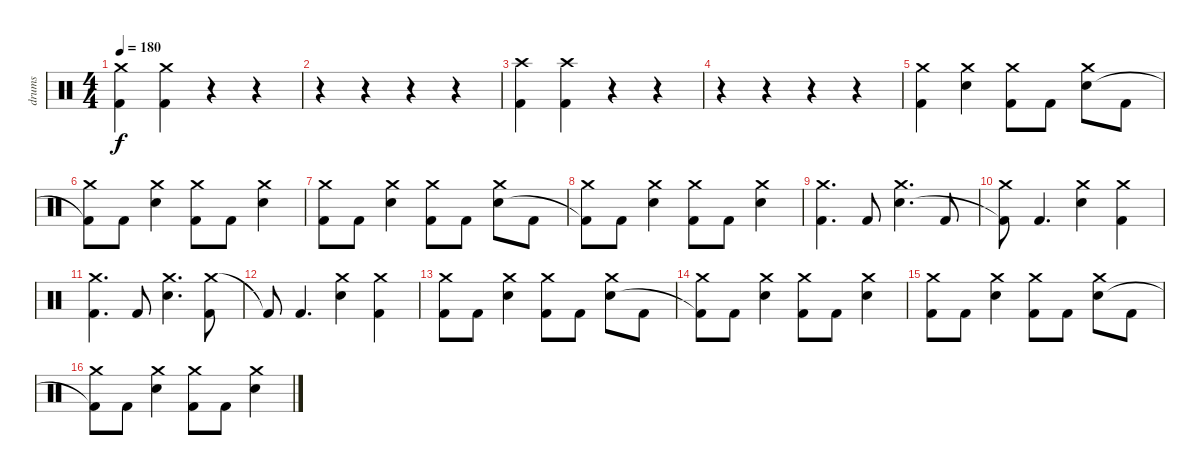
\track ("drums" "drums") {instrument percussion}
\staff {score}
\articulation defaults
\ts (4 4)
\tempo 180
\clef neutral
\ks c
("Crash medium (hit)" "Kick (hit) 2").4{dy f} ("Crash medium (hit)" "Kick (hit) 2").4 r.4 r.4 |
r.4 r.4 r.4 r.4 |
("Crash high (hit)" "Kick (hit) 2").4 ("Crash high (hit)" "Kick (hit) 2").4 r.4 r.4 |
r.4 r.4 r.4 r.4 |
("Crash medium (hit)" "Kick (hit) 2").4 ("Crash medium (hit)" "Electric Snare (hit)").4 ("Crash medium (hit)" "Kick (hit) 2").8 "Kick (hit) 2".8 ("Crash medium (hit)" "Electric Snare (hit)").8 "Kick (hit) 2".8 |
("Crash medium (hit)" "Kick (hit) 2"{t}).8 "Kick (hit) 2".8 ("Crash medium (hit)" "Electric Snare (hit)").4 ("Crash medium (hit)" "Kick (hit) 2").8 "Kick (hit) 2".8 ("Crash medium (hit)" "Electric Snare (hit)").4 |
("Crash medium (hit)" "Kick (hit) 2").8 "Kick (hit) 2".8 ("Crash medium (hit)" "Electric Snare (hit)").4 ("Crash medium (hit)" "Kick (hit) 2").8 "Kick (hit) 2".8 ("Crash medium (hit)" "Electric Snare (hit)").8 "Kick (hit) 2".8 |
("Crash medium (hit)" "Kick (hit) 2"{t}).8 "Kick (hit) 2".8 ("Crash medium (hit)" "Electric Snare (hit)").4 ("Crash medium (hit)" "Kick (hit) 2").8 "Kick (hit) 2".8 ("Crash medium (hit)" "Electric Snare (hit)").4 |
("Crash medium (hit)" "Kick (hit) 2").4{d} "Kick (hit) 2".8 ("Crash medium (hit)" "Electric Snare (hit)").4{d} "Kick (hit) 2".8 |
("Crash medium (hit)" "Kick (hit) 2"{t}).8 "Kick (hit) 2".4{d} ("Crash medium (hit)" "Electric Snare (hit)").4 ("Crash medium (hit)" "Kick (hit) 2").4 |
("Crash medium (hit)" "Kick (hit) 2").4{d} "Kick (hit) 2".8 ("Crash medium (hit)" "Electric Snare (hit)").4{d} ("Crash medium (hit)" "Kick (hit) 2").8 |
"Kick (hit) 2"{t}.8 "Kick (hit) 2".4{d} ("Crash medium (hit)" "Electric Snare (hit)").4 ("Crash medium (hit)" "Kick (hit) 2").4 |
("Crash medium (hit)" "Kick (hit) 2").8 "Kick (hit) 2".8 ("Crash medium (hit)" "Electric Snare (hit)").4 ("Crash medium (hit)" "Kick (hit) 2").8 "Kick (hit) 2".8 ("Crash medium (hit)" "Electric Snare (hit)").8 "Kick (hit) 2".8 |
("Crash medium (hit)" "Kick (hit) 2"{t}).8 "Kick (hit) 2".8 ("Crash medium (hit)" "Electric Snare (hit)").4 ("Crash medium (hit)" "Kick (hit) 2").8 "Kick (hit) 2".8 ("Crash medium (hit)" "Electric Snare (hit)").4 |
("Crash medium (hit)" "Kick (hit) 2").8 "Kick (hit) 2".8 ("Crash medium (hit)" "Electric Snare (hit)").4 ("Crash medium (hit)" "Kick (hit) 2").8 "Kick (hit) 2".8 ("Crash medium (hit)" "Electric Snare (hit)").8 "Kick (hit) 2".8 |
("Crash medium (hit)" "Kick (hit) 2"{t}).8 "Kick (hit) 2".8 ("Crash medium (hit)" "Electric Snare (hit)").4 ("Crash medium (hit)" "Kick (hit) 2").8 "Kick (hit) 2".8 ("Crash medium (hit)" "Electric Snare (hit)").4
